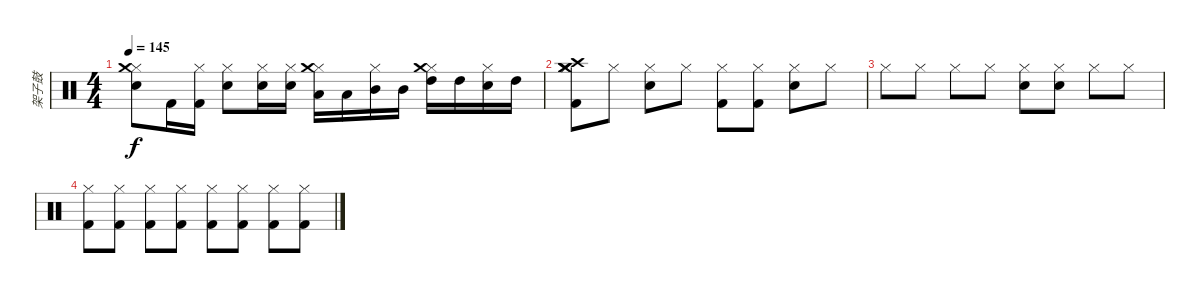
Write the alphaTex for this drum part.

\track ("架子鼓" "架子鼓") {instrument percussion}
\staff {score}
\articulation defaults
\ts (4 4)
\tempo 145
\clef neutral
\ks c
("Hi-Hat (closed)" "Snare (hit) 2" "Crash medium (hit)").8{dy f} "Kick (hit) 2".16 ("Hi-Hat (closed)" "Kick (hit) 2").16 ("Hi-Hat (closed)" "Snare (hit) 2").8 ("Hi-Hat (closed)" "Snare (hit) 2").16 ("Hi-Hat (closed)" "Snare (hit) 2").16 ("Hi-Hat (closed)" "Low Tom (hit)" "Crash medium (hit)").16 "Low Tom (hit)".16 ("Hi-Hat (closed)" "Mid Tom (hit)").16 "Mid Tom (hit)".16 ("Hi-Hat (closed)" "Crash medium (hit)" "High Tom (hit)").16 "High Tom (hit)".16 ("Hi-Hat (closed)" "Snare (hit) 2").16 "High Tom (hit)".16 |
("Hi-Hat (closed)" "Kick (hit) 2" "Crash high (hit)" "Crash medium (hit)" "Crash medium (hit)").8 "Hi-Hat (closed)".8 ("Hi-Hat (closed)" "Snare (hit) 2").8 "Hi-Hat (closed)".8 ("Hi-Hat (closed)" "Kick (hit) 2").8 ("Hi-Hat (closed)" "Kick (hit) 2").8 ("Hi-Hat (closed)" "Snare (hit) 2").8 "Hi-Hat (closed)".8 |
"Hi-Hat (closed)".8 "Hi-Hat (closed)".8 "Hi-Hat (closed)".8 "Hi-Hat (closed)".8 ("Hi-Hat (closed)" "Snare (hit) 2").8 ("Hi-Hat (closed)" "Snare (hit) 2").8 "Hi-Hat (closed)".8 "Hi-Hat (closed)".8 |
("Hi-Hat (closed)" "Kick (hit) 2").8 ("Hi-Hat (closed)" "Kick (hit) 2").8 ("Hi-Hat (closed)" "Kick (hit) 2").8 ("Hi-Hat (closed)" "Kick (hit) 2").8 ("Hi-Hat (closed)" "Kick (hit) 2").8 ("Hi-Hat (closed)" "Kick (hit) 2").8 ("Hi-Hat (closed)" "Kick (hit) 2").8 ("Hi-Hat (closed)" "Kick (hit) 2").8
